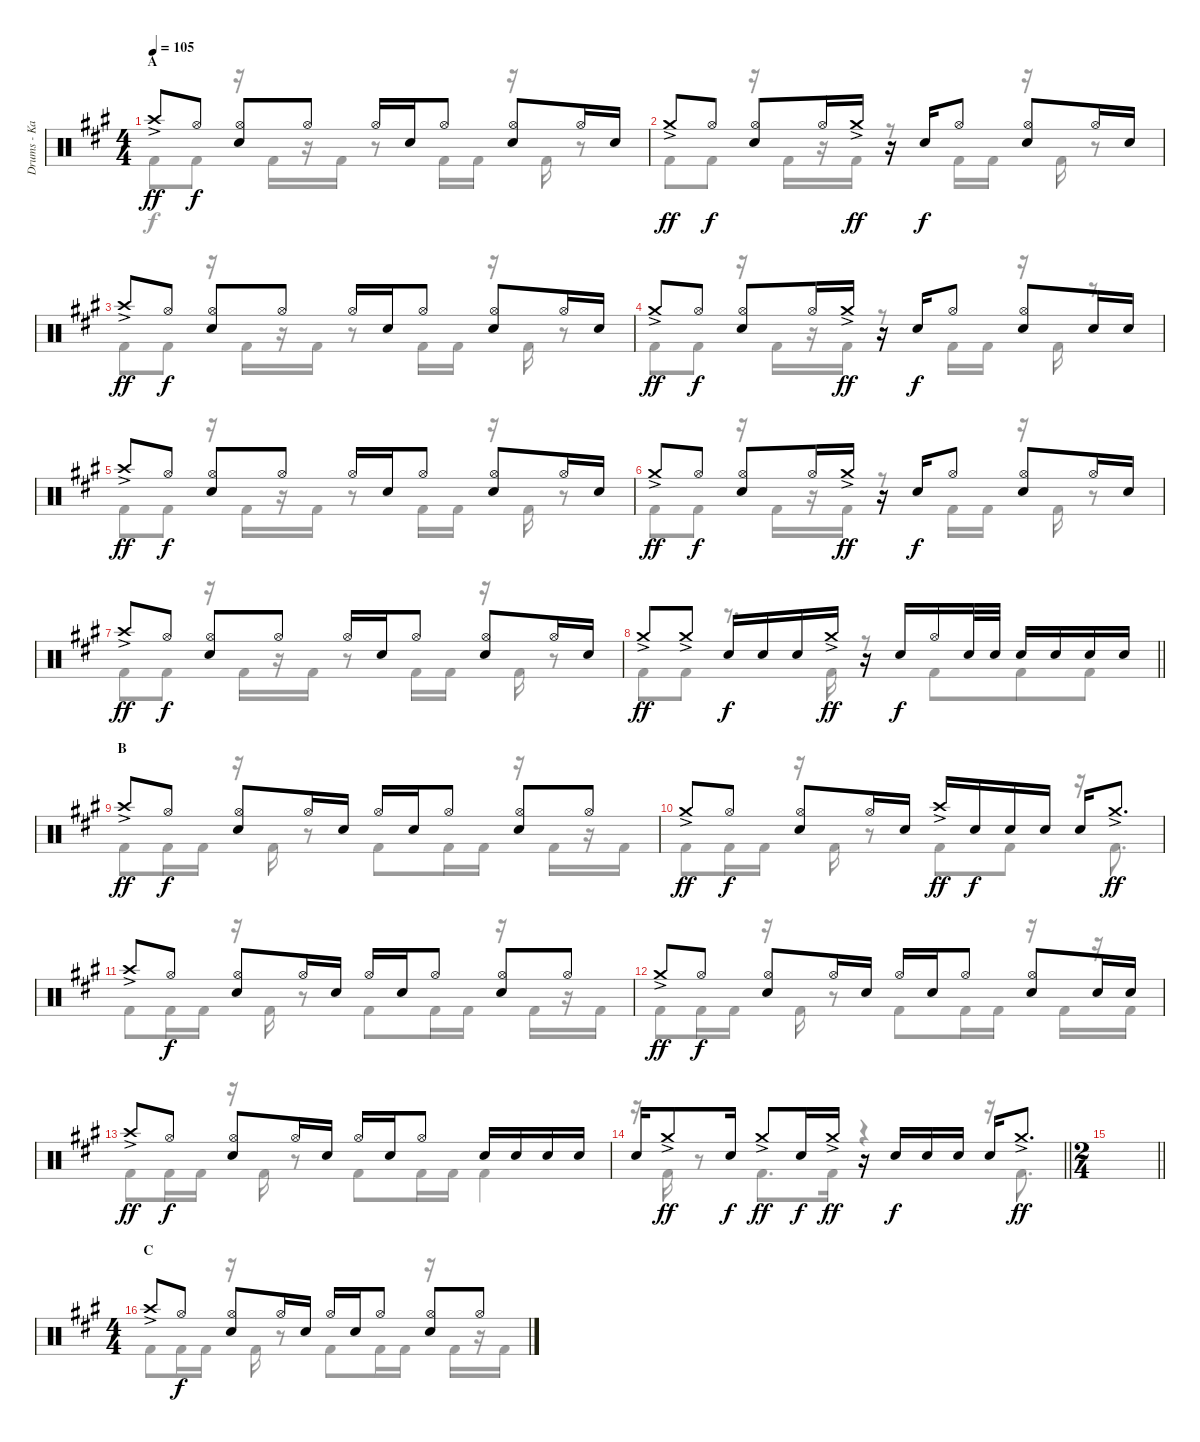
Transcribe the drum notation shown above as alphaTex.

\track ("Drums - Kai" "Drums - Ka") {instrument percussion}
\staff {score}
\articulation defaults
\voice
\ts (4 4)
\section ("" "A")
\tempo 105
\clef neutral
\ks a "Crash high (hit)"{ac}.8{dy ff} "Hi-Hat (open)".8{dy f}
("Hi-Hat (open)" "Electric Snare (hit)").8 "Hi-Hat (open)".8 "Hi-Hat (open)".16 "Electric Snare (hit)".16 "Hi-Hat (open)".8 ("Hi-Hat (open)" "Electric Snare (hit)").8 "Hi-Hat (open)".16 "Electric Snare (hit)".16 |
"Crash medium (hit)"{ac}.8{dy ff} "Hi-Hat (open)".8{dy f} ("Hi-Hat (open)" "Electric Snare (hit)").8 "Hi-Hat (open)".16 "Crash medium (hit)"{ac}.16{dy ff} r.16 "Electric Snare (hit)".16{dy f} "Hi-Hat (open)".8 ("Hi-Hat (open)" "Electric Snare (hit)").8 "Hi-Hat (open)".16 "Electric Snare (hit)".16 |
"Crash high (hit)"{ac}.8{dy ff} "Hi-Hat (open)".8{dy f} ("Hi-Hat (open)" "Electric Snare (hit)").8 "Hi-Hat (open)".8 "Hi-Hat (open)".16 "Electric Snare (hit)".16 "Hi-Hat (open)".8 ("Hi-Hat (open)" "Electric Snare (hit)").8 "Hi-Hat (open)".16 "Electric Snare (hit)".16 |
"Crash medium (hit)"{ac}.8{dy ff} "Hi-Hat (open)".8{dy f} ("Hi-Hat (open)" "Electric Snare (hit)").8 "Hi-Hat (open)".16 "Crash medium (hit)"{ac}.16{dy ff} r.16 "Electric Snare (hit)".16{dy f} "Hi-Hat (open)".8 ("Hi-Hat (open)" "Electric Snare (hit)").8 "Electric Snare (hit)".16 "Electric Snare (hit)".16 |
"Crash high (hit)"{ac}.8{dy ff} "Hi-Hat (open)".8{dy f} ("Hi-Hat (open)" "Electric Snare (hit)").8 "Hi-Hat (open)".8 "Hi-Hat (open)".16 "Electric Snare (hit)".16 "Hi-Hat (open)".8 ("Hi-Hat (open)" "Electric Snare (hit)").8 "Hi-Hat (open)".16 "Electric Snare (hit)".16 |
"Crash medium (hit)"{ac}.8{dy ff} "Hi-Hat (open)".8{dy f} ("Hi-Hat (open)" "Electric Snare (hit)").8 "Hi-Hat (open)".16 "Crash medium (hit)"{ac}.16{dy ff} r.16 "Electric Snare (hit)".16{dy f} "Hi-Hat (open)".8 ("Hi-Hat (open)" "Electric Snare (hit)").8 "Hi-Hat (open)".16 "Electric Snare (hit)".16 |
"Crash high (hit)"{ac}.8{dy ff} "Hi-Hat (open)".8{dy f} ("Hi-Hat (open)" "Electric Snare (hit)").8 "Hi-Hat (open)".8 "Hi-Hat (open)".16 "Electric Snare (hit)".16 "Hi-Hat (open)".8 ("Hi-Hat (open)" "Electric Snare (hit)").8 "Hi-Hat (open)".16 "Electric Snare (hit)".16 |
\barLineRight lightlight "Crash medium (hit)"{ac}.8{dy ff} "Crash medium (hit)"{ac}.8 "Electric Snare (hit)".16{dy f} "Electric Snare (hit)".16 "Electric Snare (hit)".16 "Crash medium (hit)"{ac}.16{dy ff}
r.16 "Electric Snare (hit)".16{dy f} "Hi-Hat (open)".16 "Electric Snare (hit)".32 "Electric Snare (hit)".32 "Electric Snare (hit)".16 "Electric Snare (hit)".16 "Electric Snare (hit)".16 "Electric Snare (hit)".16 |
\section ("" "B")
"Crash high (hit)"{ac}.8{dy ff} "Hi-Hat (open)".8{dy f} ("Hi-Hat (open)" "Electric Snare (hit)").8 "Hi-Hat (open)".16 "Electric Snare (hit)".16 "Hi-Hat (open)".16 "Electric Snare (hit)".16 "Hi-Hat (open)".8 ("Hi-Hat (open)" "Electric Snare (hit)").8 "Hi-Hat (open)".8 |
"Crash medium (hit)"{ac}.8{dy ff} "Hi-Hat (open)".8{dy f} ("Hi-Hat (open)" "Electric Snare (hit)").8 "Hi-Hat (open)".16 "Electric Snare (hit)".16 "Crash high (hit)"{ac}.16{dy ff} "Electric Snare (hit)".16{dy f} "Electric Snare (hit)".16 "Electric Snare (hit)".16 "Electric Snare (hit)".16 "Crash medium (hit)"{ac}.8{d dy ff} |
"Crash high (hit)"{ac}.8 "Hi-Hat (open)".8{dy f} ("Hi-Hat (open)" "Electric Snare (hit)").8 "Hi-Hat (open)".16 "Electric Snare (hit)".16 "Hi-Hat (open)".16 "Electric Snare (hit)".16 "Hi-Hat (open)".8 ("Hi-Hat (open)" "Electric Snare (hit)").8 "Hi-Hat (open)".8 |
"Crash medium (hit)"{ac}.8{dy ff} "Hi-Hat (open)".8{dy f} ("Hi-Hat (open)" "Electric Snare (hit)").8 "Hi-Hat (open)".16 "Electric Snare (hit)".16 "Hi-Hat (open)".16 "Electric Snare (hit)".16 "Hi-Hat (open)".8 ("Hi-Hat (open)" "Electric Snare (hit)").8 "Electric Snare (hit)".16 "Electric Snare (hit)".16 |
"Crash high (hit)"{ac}.8{dy ff} "Hi-Hat (open)".8{dy f} ("Hi-Hat (open)" "Electric Snare (hit)").8 "Hi-Hat (open)".16 "Electric Snare (hit)".16 "Hi-Hat (open)".16 "Electric Snare (hit)".16 "Hi-Hat (open)".8 "Electric Snare (hit)".16 "Electric Snare (hit)".16 "Electric Snare (hit)".16 "Electric Snare (hit)".16 |
\barLineRight lightlight "Electric Snare (hit)".16 "Crash medium (hit)"{ac}.8{dy ff} "Electric Snare (hit)".16{dy f} "Crash medium (hit)"{ac}.8{dy ff} "Electric Snare (hit)".16{dy f} "Crash medium (hit)"{ac}.16{dy ff}
r.16 "Electric Snare (hit)".16{dy f} "Electric Snare (hit)".16 "Electric Snare (hit)".16 "Electric Snare (hit)".16 "Crash medium (hit)"{ac}.8{d dy ff} |
\ts (2 4)
\barLineRight lightlight
|
\ts (4 4)
\section ("" "C")
"Crash high (hit)"{ac}.8 "Hi-Hat (open)".8{dy f} ("Hi-Hat (open)" "Electric Snare (hit)").8 "Hi-Hat (open)".16 "Electric Snare (hit)".16 "Hi-Hat (open)".16 "Electric Snare (hit)".16 "Hi-Hat (open)".8 ("Hi-Hat (open)" "Electric Snare (hit)").8 "Hi-Hat (open)".8
\voice
\clef neutral
\ottava regular
\simile none
\ks a "Kick (hit) 2".8{dy f} "Kick (hit) 2".8
r.16 "Kick (hit) 2".16 r.16 "Kick (hit) 2".16 r.8 "Kick (hit) 2".16 "Kick (hit) 2".16 r.16 "Kick (hit) 2".16 r.8 |
"Kick (hit) 2".8 "Kick (hit) 2".8 r.16 "Kick (hit) 2".16 r.16 "Kick (hit) 2".16 r.8 "Kick (hit) 2".16 "Kick (hit) 2".16 r.16 "Kick (hit) 2".16 r.8 |
"Kick (hit) 2".8 "Kick (hit) 2".8 r.16 "Kick (hit) 2".16 r.16 "Kick (hit) 2".16 r.8 "Kick (hit) 2".16 "Kick (hit) 2".16 r.16 "Kick (hit) 2".16 r.8 |
"Kick (hit) 2".8 "Kick (hit) 2".8 r.16 "Kick (hit) 2".16 r.16 "Kick (hit) 2".16 r.8 "Kick (hit) 2".16 "Kick (hit) 2".16 r.16 "Kick (hit) 2".16 r.8 |
"Kick (hit) 2".8 "Kick (hit) 2".8 r.16 "Kick (hit) 2".16 r.16 "Kick (hit) 2".16 r.8 "Kick (hit) 2".16 "Kick (hit) 2".16 r.16 "Kick (hit) 2".16 r.8 |
"Kick (hit) 2".8 "Kick (hit) 2".8 r.16 "Kick (hit) 2".16 r.16 "Kick (hit) 2".16 r.8 "Kick (hit) 2".16 "Kick (hit) 2".16 r.16 "Kick (hit) 2".16 r.8 |
"Kick (hit) 2".8 "Kick (hit) 2".8 r.16 "Kick (hit) 2".16 r.16 "Kick (hit) 2".16 r.8 "Kick (hit) 2".16 "Kick (hit) 2".16 r.16 "Kick (hit) 2".16 r.8 |
\barLineRight lightlight "Kick (hit) 2".8 "Kick (hit) 2".8
r.8{d} "Kick (hit) 2".16 r.8 "Kick (hit) 2".8{beam merge} "Kick (hit) 2".8 "Kick (hit) 2".8 |
"Kick (hit) 2".8 "Kick (hit) 2".16 "Kick (hit) 2".16 r.16 "Kick (hit) 2".16 r.8 "Kick (hit) 2".8 "Kick (hit) 2".16 "Kick (hit) 2".16 r.16 "Kick (hit) 2".16 r.16 "Kick (hit) 2".16 |
"Kick (hit) 2".8 "Kick (hit) 2".16 "Kick (hit) 2".16 r.16 "Kick (hit) 2".16 r.8 "Kick (hit) 2".8 "Kick (hit) 2".8 r.16 "Kick (hit) 2".8{d} |
"Kick (hit) 2".8 "Kick (hit) 2".16 "Kick (hit) 2".16 r.16 "Kick (hit) 2".16 r.8 "Kick (hit) 2".8 "Kick (hit) 2".16 "Kick (hit) 2".16 r.16 "Kick (hit) 2".16 r.16 "Kick (hit) 2".16 |
"Kick (hit) 2".8 "Kick (hit) 2".16 "Kick (hit) 2".16 r.16 "Kick (hit) 2".16 r.8 "Kick (hit) 2".8 "Kick (hit) 2".16 "Kick (hit) 2".16 r.16 "Kick (hit) 2".16 r.16 "Kick (hit) 2".16 |
"Kick (hit) 2".8 "Kick (hit) 2".16 "Kick (hit) 2".16 r.16 "Kick (hit) 2".16 r.8 "Kick (hit) 2".8 "Kick (hit) 2".16 "Kick (hit) 2".16 "Kick (hit) 2".4 |
\barLineRight lightlight
r.16 "Kick (hit) 2".16 r.8 "Kick (hit) 2".8{d} "Kick (hit) 2".16 r.4 r.16 "Kick (hit) 2".8{d} |
\barLineRight lightlight
|
"Kick (hit) 2".8 "Kick (hit) 2".16 "Kick (hit) 2".16 r.16 "Kick (hit) 2".16 r.8 "Kick (hit) 2".8 "Kick (hit) 2".16 "Kick (hit) 2".16 r.16 "Kick (hit) 2".16 r.16 "Kick (hit) 2".16
